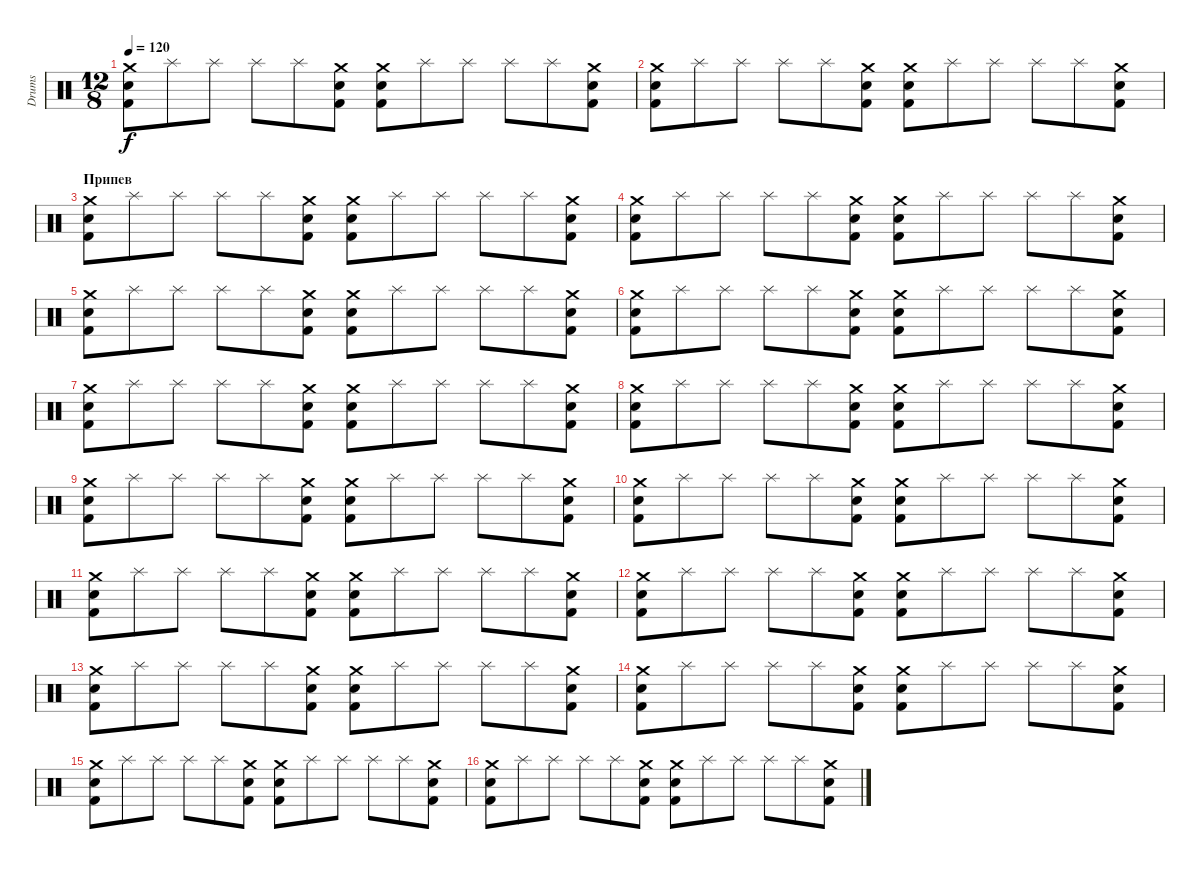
\track ("Drums" "Drums") {instrument percussion}
\staff {score}
\articulation defaults
\ts (12 8)
\tempo 120
\clef neutral
\ks c
("Crash medium (hit)" "Snare (hit) 2" "Kick (hit) 2").8{dy f} "Splash (hit)".8 "Splash (hit)".8 "Splash (hit)".8 "Splash (hit)".8 ("Crash medium (hit)" "Snare (hit) 2" "Kick (hit) 2").8 ("Crash medium (hit)" "Snare (hit) 2" "Kick (hit) 2").8 "Splash (hit)".8 "Splash (hit)".8 "Splash (hit)".8 "Splash (hit)".8 ("Crash medium (hit)" "Snare (hit) 2" "Kick (hit) 2").8 |
("Crash medium (hit)" "Snare (hit) 2" "Kick (hit) 2").8 "Splash (hit)".8 "Splash (hit)".8 "Splash (hit)".8 "Splash (hit)".8 ("Crash medium (hit)" "Snare (hit) 2" "Kick (hit) 2").8 ("Crash medium (hit)" "Snare (hit) 2" "Kick (hit) 2").8 "Splash (hit)".8 "Splash (hit)".8 "Splash (hit)".8 "Splash (hit)".8 ("Crash medium (hit)" "Snare (hit) 2" "Kick (hit) 2").8 |
\section ("" "Припев")
("Crash medium (hit)" "Snare (hit) 2" "Kick (hit) 2").8 "Splash (hit)".8 "Splash (hit)".8 "Splash (hit)".8 "Splash (hit)".8 ("Crash medium (hit)" "Snare (hit) 2" "Kick (hit) 2").8 ("Crash medium (hit)" "Snare (hit) 2" "Kick (hit) 2").8 "Splash (hit)".8 "Splash (hit)".8 "Splash (hit)".8 "Splash (hit)".8 ("Crash medium (hit)" "Snare (hit) 2" "Kick (hit) 2").8 |
("Crash medium (hit)" "Snare (hit) 2" "Kick (hit) 2").8 "Splash (hit)".8 "Splash (hit)".8 "Splash (hit)".8 "Splash (hit)".8 ("Crash medium (hit)" "Snare (hit) 2" "Kick (hit) 2").8 ("Crash medium (hit)" "Snare (hit) 2" "Kick (hit) 2").8 "Splash (hit)".8 "Splash (hit)".8 "Splash (hit)".8 "Splash (hit)".8 ("Crash medium (hit)" "Snare (hit) 2" "Kick (hit) 2").8 |
("Crash medium (hit)" "Snare (hit) 2" "Kick (hit) 2").8 "Splash (hit)".8 "Splash (hit)".8 "Splash (hit)".8 "Splash (hit)".8 ("Crash medium (hit)" "Snare (hit) 2" "Kick (hit) 2").8 ("Crash medium (hit)" "Snare (hit) 2" "Kick (hit) 2").8 "Splash (hit)".8 "Splash (hit)".8 "Splash (hit)".8 "Splash (hit)".8 ("Crash medium (hit)" "Snare (hit) 2" "Kick (hit) 2").8 |
("Crash medium (hit)" "Snare (hit) 2" "Kick (hit) 2").8 "Splash (hit)".8 "Splash (hit)".8 "Splash (hit)".8 "Splash (hit)".8 ("Crash medium (hit)" "Snare (hit) 2" "Kick (hit) 2").8 ("Crash medium (hit)" "Snare (hit) 2" "Kick (hit) 2").8 "Splash (hit)".8 "Splash (hit)".8 "Splash (hit)".8 "Splash (hit)".8 ("Crash medium (hit)" "Snare (hit) 2" "Kick (hit) 2").8 |
("Crash medium (hit)" "Snare (hit) 2" "Kick (hit) 2").8 "Splash (hit)".8 "Splash (hit)".8 "Splash (hit)".8 "Splash (hit)".8 ("Crash medium (hit)" "Snare (hit) 2" "Kick (hit) 2").8 ("Crash medium (hit)" "Snare (hit) 2" "Kick (hit) 2").8 "Splash (hit)".8 "Splash (hit)".8 "Splash (hit)".8 "Splash (hit)".8 ("Crash medium (hit)" "Snare (hit) 2" "Kick (hit) 2").8 |
("Crash medium (hit)" "Snare (hit) 2" "Kick (hit) 2").8 "Splash (hit)".8 "Splash (hit)".8 "Splash (hit)".8 "Splash (hit)".8 ("Crash medium (hit)" "Snare (hit) 2" "Kick (hit) 2").8 ("Crash medium (hit)" "Snare (hit) 2" "Kick (hit) 2").8 "Splash (hit)".8 "Splash (hit)".8 "Splash (hit)".8 "Splash (hit)".8 ("Crash medium (hit)" "Snare (hit) 2" "Kick (hit) 2").8 |
("Crash medium (hit)" "Snare (hit) 2" "Kick (hit) 2").8 "Splash (hit)".8 "Splash (hit)".8 "Splash (hit)".8 "Splash (hit)".8 ("Crash medium (hit)" "Snare (hit) 2" "Kick (hit) 2").8 ("Crash medium (hit)" "Snare (hit) 2" "Kick (hit) 2").8 "Splash (hit)".8 "Splash (hit)".8 "Splash (hit)".8 "Splash (hit)".8 ("Crash medium (hit)" "Snare (hit) 2" "Kick (hit) 2").8 |
("Crash medium (hit)" "Snare (hit) 2" "Kick (hit) 2").8 "Splash (hit)".8 "Splash (hit)".8 "Splash (hit)".8 "Splash (hit)".8 ("Crash medium (hit)" "Snare (hit) 2" "Kick (hit) 2").8 ("Crash medium (hit)" "Snare (hit) 2" "Kick (hit) 2").8 "Splash (hit)".8 "Splash (hit)".8 "Splash (hit)".8 "Splash (hit)".8 ("Crash medium (hit)" "Snare (hit) 2" "Kick (hit) 2").8 |
("Crash medium (hit)" "Snare (hit) 2" "Kick (hit) 2").8 "Splash (hit)".8 "Splash (hit)".8 "Splash (hit)".8 "Splash (hit)".8 ("Crash medium (hit)" "Snare (hit) 2" "Kick (hit) 2").8 ("Crash medium (hit)" "Snare (hit) 2" "Kick (hit) 2").8 "Splash (hit)".8 "Splash (hit)".8 "Splash (hit)".8 "Splash (hit)".8 ("Crash medium (hit)" "Snare (hit) 2" "Kick (hit) 2").8 |
("Crash medium (hit)" "Snare (hit) 2" "Kick (hit) 2").8 "Splash (hit)".8 "Splash (hit)".8 "Splash (hit)".8 "Splash (hit)".8 ("Crash medium (hit)" "Snare (hit) 2" "Kick (hit) 2").8 ("Crash medium (hit)" "Snare (hit) 2" "Kick (hit) 2").8 "Splash (hit)".8 "Splash (hit)".8 "Splash (hit)".8 "Splash (hit)".8 ("Crash medium (hit)" "Snare (hit) 2" "Kick (hit) 2").8 |
("Crash medium (hit)" "Snare (hit) 2" "Kick (hit) 2").8 "Splash (hit)".8 "Splash (hit)".8 "Splash (hit)".8 "Splash (hit)".8 ("Crash medium (hit)" "Snare (hit) 2" "Kick (hit) 2").8 ("Crash medium (hit)" "Snare (hit) 2" "Kick (hit) 2").8 "Splash (hit)".8 "Splash (hit)".8 "Splash (hit)".8 "Splash (hit)".8 ("Crash medium (hit)" "Snare (hit) 2" "Kick (hit) 2").8 |
("Crash medium (hit)" "Snare (hit) 2" "Kick (hit) 2").8 "Splash (hit)".8 "Splash (hit)".8 "Splash (hit)".8 "Splash (hit)".8 ("Crash medium (hit)" "Snare (hit) 2" "Kick (hit) 2").8 ("Crash medium (hit)" "Snare (hit) 2" "Kick (hit) 2").8 "Splash (hit)".8 "Splash (hit)".8 "Splash (hit)".8 "Splash (hit)".8 ("Crash medium (hit)" "Snare (hit) 2" "Kick (hit) 2").8 |
("Crash medium (hit)" "Snare (hit) 2" "Kick (hit) 2").8 "Splash (hit)".8 "Splash (hit)".8 "Splash (hit)".8 "Splash (hit)".8 ("Crash medium (hit)" "Snare (hit) 2" "Kick (hit) 2").8 ("Crash medium (hit)" "Snare (hit) 2" "Kick (hit) 2").8 "Splash (hit)".8 "Splash (hit)".8 "Splash (hit)".8 "Splash (hit)".8 ("Crash medium (hit)" "Snare (hit) 2" "Kick (hit) 2").8 |
("Crash medium (hit)" "Snare (hit) 2" "Kick (hit) 2").8 "Splash (hit)".8 "Splash (hit)".8 "Splash (hit)".8 "Splash (hit)".8 ("Crash medium (hit)" "Snare (hit) 2" "Kick (hit) 2").8 ("Crash medium (hit)" "Snare (hit) 2" "Kick (hit) 2").8 "Splash (hit)".8 "Splash (hit)".8 "Splash (hit)".8 "Splash (hit)".8 ("Crash medium (hit)" "Snare (hit) 2" "Kick (hit) 2").8
